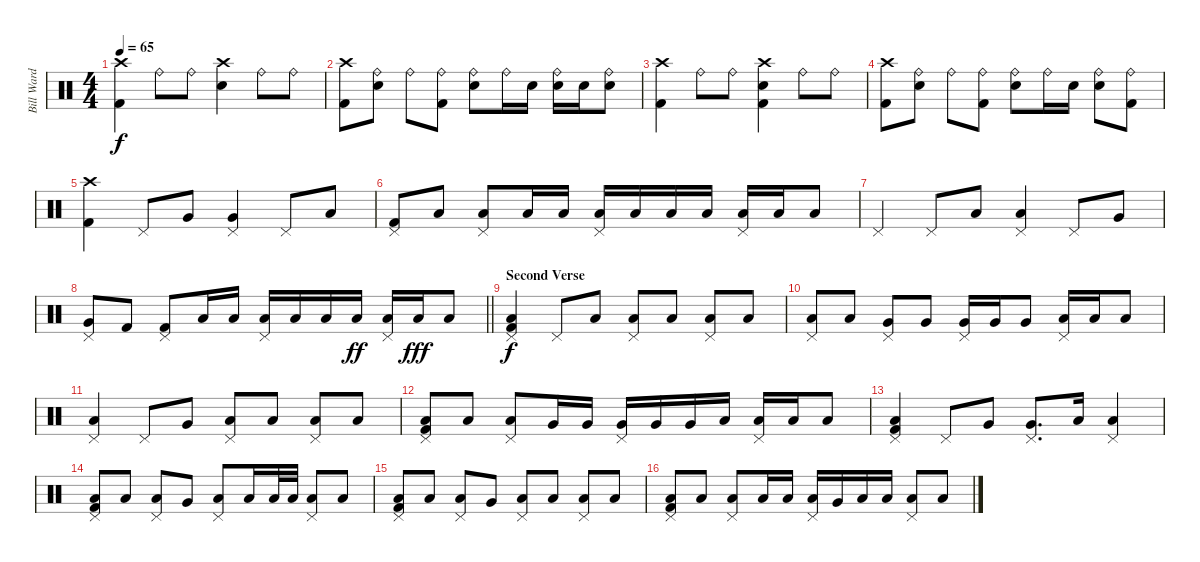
\track ("Bill Ward" "Bill Ward") {instrument percussion}
\staff {score}
\articulation defaults
\ts (4 4)
\tempo 65
\clef neutral
\ks c
("Crash high (hit)" "Kick (hit) 2").4{dy f} "Ride (bell)".8 "Ride (bell)".8 ("Crash high (hit)" "Snare (hit) 2").4 "Ride (bell)".8 "Ride (bell)".8 |
("Crash high (hit)" "Kick (hit) 2").8 ("Ride (bell)" "Snare (hit) 2").8 "Ride (bell)".8 ("Ride (bell)" "Kick (hit) 2").8 ("Ride (bell)" "Snare (hit) 2").8 "Ride (bell)".16 "Snare (hit) 2".16 ("Ride (bell)" "Snare (hit) 2").16 "Snare (hit) 2".16 ("Ride (bell)" "Snare (hit) 2").8 |
("Crash high (hit)" "Kick (hit) 2").4 "Ride (bell)".8 "Ride (bell)".8 ("Crash high (hit)" "Snare (hit) 2" "Kick (hit) 2").4 "Ride (bell)".8 "Ride (bell)".8 |
("Crash high (hit)" "Kick (hit) 2").8 ("Ride (bell)" "Snare (hit) 2").8 "Ride (bell)".8 ("Ride (bell)" "Kick (hit) 2").8 ("Ride (bell)" "Snare (hit) 2").8 "Ride (bell)".16 "Snare (hit) 2".16 ("Ride (bell)" "Snare (hit) 2").8 ("Ride (bell)" "Kick (hit) 2").8 |
("Crash high (hit)" "Kick (hit) 2").4{volume 8} "Pedal Hi-Hat (hit)".8 "Very Low Tom (hit)".8 ("Pedal Hi-Hat (hit)" "Very Low Tom (hit)").4 "Pedal Hi-Hat (hit)".8 "Low Floor Tom (hit)".8 |
("Pedal Hi-Hat (hit)" "Kick (hit) 2").8 "Low Floor Tom (hit)".8 ("Pedal Hi-Hat (hit)" "Low Floor Tom (hit)").8 "Low Floor Tom (hit)".16 "Low Floor Tom (hit)".16 ("Pedal Hi-Hat (hit)" "Low Floor Tom (hit)").16 "Low Floor Tom (hit)".16 "Low Floor Tom (hit)".16 "Low Floor Tom (hit)".16 ("Pedal Hi-Hat (hit)" "Low Floor Tom (hit)").16 "Low Floor Tom (hit)".16 "Low Floor Tom (hit)".8 |
"Pedal Hi-Hat (hit)".4 "Pedal Hi-Hat (hit)".8 "Low Floor Tom (hit)".8 ("Pedal Hi-Hat (hit)" "Low Floor Tom (hit)").4 "Pedal Hi-Hat (hit)".8 "Very Low Tom (hit)".8 |
\barLineRight lightlight
("Pedal Hi-Hat (hit)" "Very Low Tom (hit)").8 "Kick (hit) 2".8 ("Pedal Hi-Hat (hit)" "Kick (hit) 2").8 "Low Floor Tom (hit)".16 "Low Floor Tom (hit)".16 ("Pedal Hi-Hat (hit)" "Low Floor Tom (hit)").16 "Low Floor Tom (hit)".16 "Low Floor Tom (hit)".16 "Low Floor Tom (hit)".16{dy ff} ("Pedal Hi-Hat (hit)" "Low Floor Tom (hit)").16 "Low Floor Tom (hit)".16{dy fff} "Low Floor Tom (hit)".8 |
\section ("" "Second Verse")
("Pedal Hi-Hat (hit)" "Low Floor Tom (hit)" "Kick (hit) 2").4{dy f} "Pedal Hi-Hat (hit)".8 "Low Floor Tom (hit)".8 ("Pedal Hi-Hat (hit)" "Low Floor Tom (hit)").8 "Low Floor Tom (hit)".8 ("Pedal Hi-Hat (hit)" "Low Floor Tom (hit)").8 "Low Floor Tom (hit)".8 |
("Pedal Hi-Hat (hit)" "Low Floor Tom (hit)").8 "Low Floor Tom (hit)".8 ("Pedal Hi-Hat (hit)" "Very Low Tom (hit)").8 "Very Low Tom (hit)".8 ("Pedal Hi-Hat (hit)" "Very Low Tom (hit)").16 "Very Low Tom (hit)".16 "Very Low Tom (hit)".8 ("Pedal Hi-Hat (hit)" "Low Floor Tom (hit)").16 "Low Floor Tom (hit)".16 "Low Floor Tom (hit)".8 |
("Pedal Hi-Hat (hit)" "Low Floor Tom (hit)").4 "Pedal Hi-Hat (hit)".8 "Very Low Tom (hit)".8 ("Pedal Hi-Hat (hit)" "Low Floor Tom (hit)").8 "Low Floor Tom (hit)".8 ("Pedal Hi-Hat (hit)" "Low Floor Tom (hit)").8 "Low Floor Tom (hit)".8 |
("Pedal Hi-Hat (hit)" "Low Floor Tom (hit)" "Kick (hit) 2").8 "Low Floor Tom (hit)".8 ("Pedal Hi-Hat (hit)" "Low Floor Tom (hit)").8 "Very Low Tom (hit)".16 "Very Low Tom (hit)".16 ("Pedal Hi-Hat (hit)" "Very Low Tom (hit)").16 "Very Low Tom (hit)".16 "Very Low Tom (hit)".16 "Low Floor Tom (hit)".16 ("Pedal Hi-Hat (hit)" "Low Floor Tom (hit)").16 "Low Floor Tom (hit)".16 "Low Floor Tom (hit)".8 |
("Pedal Hi-Hat (hit)" "Low Floor Tom (hit)" "Kick (hit) 2").4 "Pedal Hi-Hat (hit)".8 "Very Low Tom (hit)".8 ("Pedal Hi-Hat (hit)" "Very Low Tom (hit)").8{d} "Low Floor Tom (hit)".16 ("Pedal Hi-Hat (hit)" "Low Floor Tom (hit)").4 |
("Pedal Hi-Hat (hit)" "Low Floor Tom (hit)" "Kick (hit) 2").8 "Low Floor Tom (hit)".8 ("Pedal Hi-Hat (hit)" "Low Floor Tom (hit)").8 "Very Low Tom (hit)".8 ("Pedal Hi-Hat (hit)" "Low Floor Tom (hit)").8 "Low Floor Tom (hit)".16 "Low Floor Tom (hit)".32 "Low Floor Tom (hit)".32 ("Pedal Hi-Hat (hit)" "Low Floor Tom (hit)").8 "Low Floor Tom (hit)".8 |
("Pedal Hi-Hat (hit)" "Low Floor Tom (hit)" "Kick (hit) 2").8 "Low Floor Tom (hit)".8 ("Pedal Hi-Hat (hit)" "Low Floor Tom (hit)").8 "Very Low Tom (hit)".8 ("Pedal Hi-Hat (hit)" "Low Floor Tom (hit)").8 "Low Floor Tom (hit)".8 ("Pedal Hi-Hat (hit)" "Low Floor Tom (hit)").8 "Low Floor Tom (hit)".8 |
("Pedal Hi-Hat (hit)" "Low Floor Tom (hit)" "Kick (hit) 2").8 "Low Floor Tom (hit)".8 ("Pedal Hi-Hat (hit)" "Low Floor Tom (hit)").8 "Low Floor Tom (hit)".16 "Low Floor Tom (hit)".16 ("Pedal Hi-Hat (hit)" "Low Floor Tom (hit)").16 "Very Low Tom (hit)".16 "Low Floor Tom (hit)".16 "Low Floor Tom (hit)".16 ("Pedal Hi-Hat (hit)" "Low Floor Tom (hit)").8 "Low Floor Tom (hit)".8
